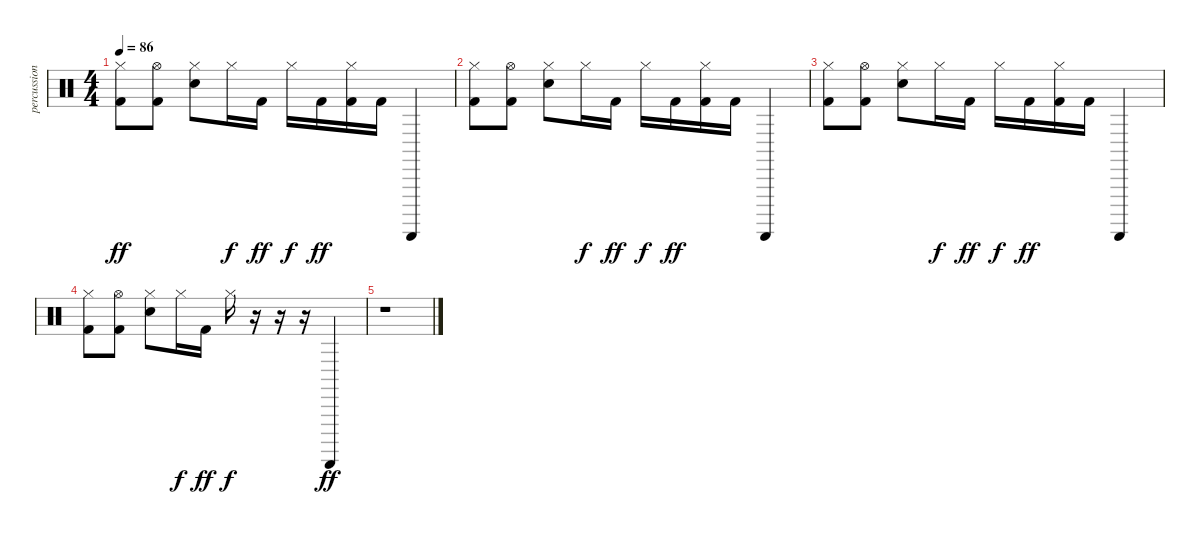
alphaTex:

\track ("percussion" "percussion") {instrument percussion}
\staff {score}
\articulation defaults
\ts (4 4)
\tempo 86
\clef neutral
\ks c
("Hi-Hat (closed)" "Kick (hit) 2").8{dy ff} ("Hi-Hat (open)" "Kick (hit) 2").8 ("Electric Snare (hit)" "Hi-Hat (closed)").8 "Hi-Hat (closed)".16{dy f} "Kick (hit) 2".16{dy ff} "Hi-Hat (closed)".16{dy f} "Kick (hit) 2".16{dy ff} ("Hi-Hat (closed)" "Kick (hit) 2").16 "Kick (hit) 2".16 "Guiro (scrap-return)".4 |
("Hi-Hat (closed)" "Kick (hit) 2").8 ("Hi-Hat (open)" "Kick (hit) 2").8 ("Electric Snare (hit)" "Hi-Hat (closed)").8 "Hi-Hat (closed)".16{dy f} "Kick (hit) 2".16{dy ff} "Hi-Hat (closed)".16{dy f} "Kick (hit) 2".16{dy ff} ("Hi-Hat (closed)" "Kick (hit) 2").16 "Kick (hit) 2".16 "Guiro (scrap-return)".4 |
("Hi-Hat (closed)" "Kick (hit) 2").8 ("Hi-Hat (open)" "Kick (hit) 2").8 ("Electric Snare (hit)" "Hi-Hat (closed)").8 "Hi-Hat (closed)".16{dy f} "Kick (hit) 2".16{dy ff} "Hi-Hat (closed)".16{dy f} "Kick (hit) 2".16{dy ff} ("Hi-Hat (closed)" "Kick (hit) 2").16 "Kick (hit) 2".16 "Guiro (scrap-return)".4 |
("Hi-Hat (closed)" "Kick (hit) 2").8 ("Hi-Hat (open)" "Kick (hit) 2").8 ("Electric Snare (hit)" "Hi-Hat (closed)").8 "Hi-Hat (closed)".16{dy f} "Kick (hit) 2".16{dy ff} "Hi-Hat (closed)".16{dy f} r.16 r.16 r.16 "Guiro (scrap-return)".4{dy ff} |
r.1
